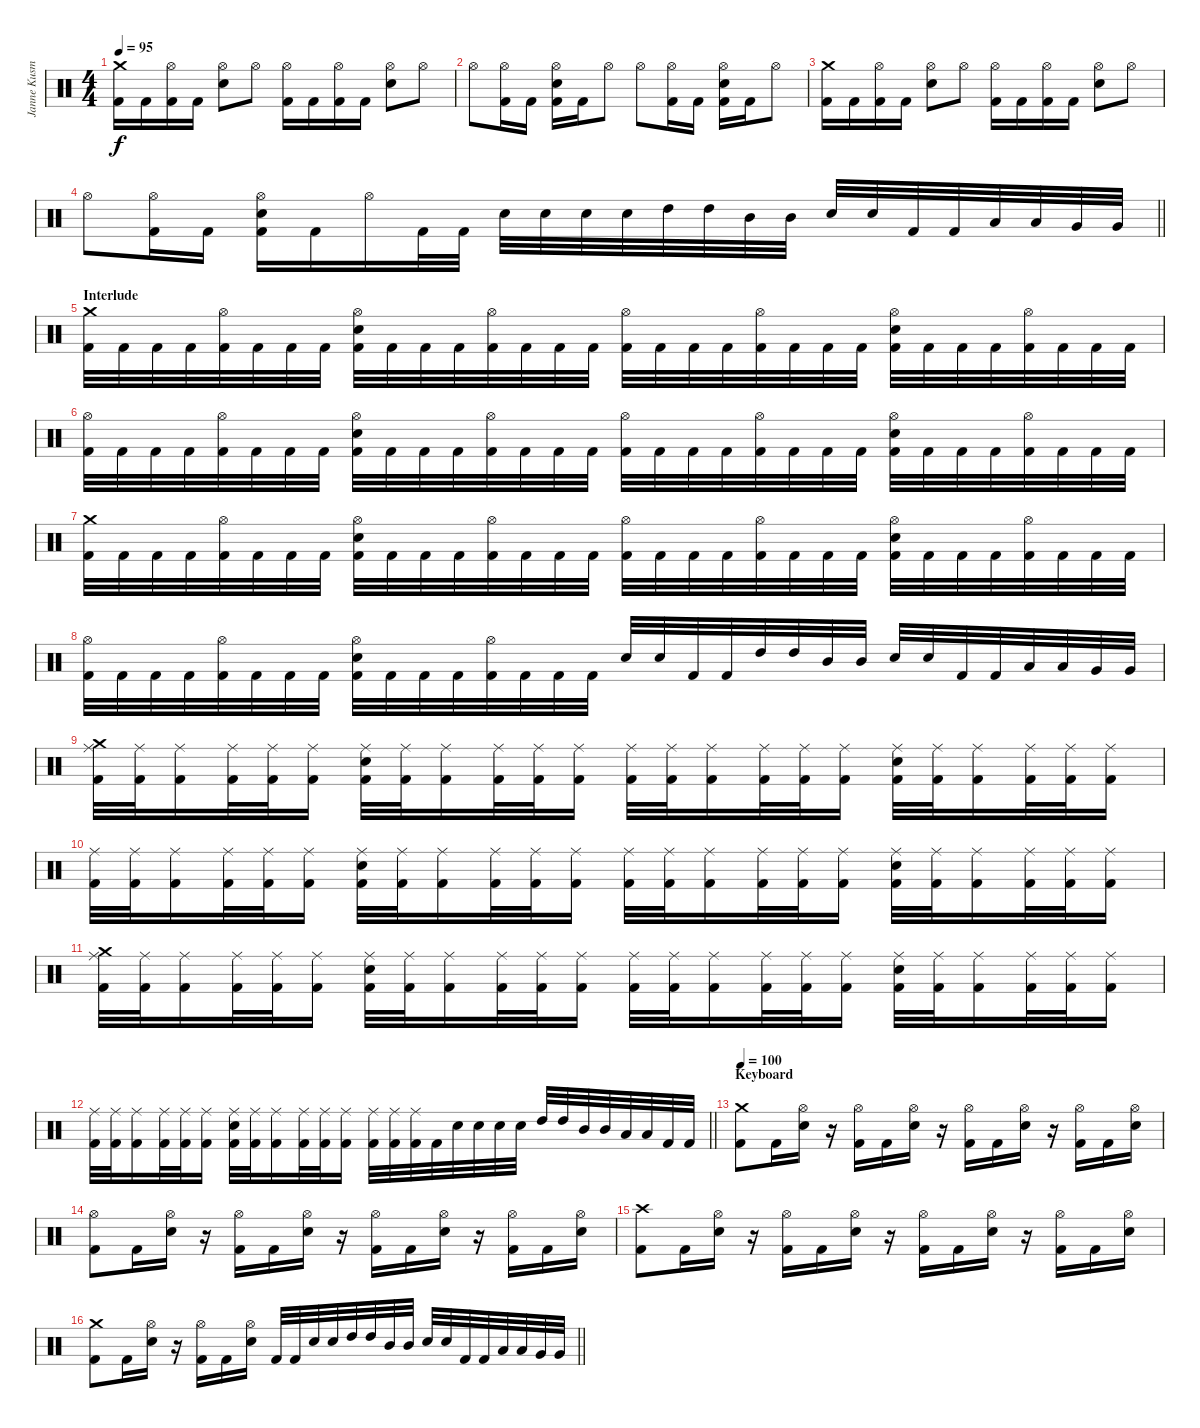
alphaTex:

\track ("Janne Kusmin " "Janne Kusm") {instrument percussion}
\staff {score}
\articulation defaults
\ts (4 4)
\tempo 95
\clef neutral
\ks c
("Crash medium (hit)" "Kick (hit) 2").16{dy f} "Kick (hit) 2".16 ("Hi-Hat (open)" "Kick (hit) 2").16 "Kick (hit) 2".16 ("Hi-Hat (open)" "Electric Snare (hit)").8 "Hi-Hat (open)".8 ("Hi-Hat (open)" "Kick (hit) 2").16 "Kick (hit) 2".16 ("Hi-Hat (open)" "Kick (hit) 2").16 "Kick (hit) 2".16 ("Hi-Hat (open)" "Electric Snare (hit)").8 "Hi-Hat (open)".8 |
"Hi-Hat (open)".8 ("Hi-Hat (open)" "Kick (hit) 2").16 "Kick (hit) 2".16 ("Hi-Hat (open)" "Electric Snare (hit)" "Kick (hit) 2").16 "Kick (hit) 2".16 "Hi-Hat (open)".8 "Hi-Hat (open)".8 ("Hi-Hat (open)" "Kick (hit) 2").16 "Kick (hit) 2".16 ("Hi-Hat (open)" "Electric Snare (hit)" "Kick (hit) 2").16 "Kick (hit) 2".16 "Hi-Hat (open)".8 |
("Crash medium (hit)" "Kick (hit) 2").16 "Kick (hit) 2".16 ("Hi-Hat (open)" "Kick (hit) 2").16 "Kick (hit) 2".16 ("Hi-Hat (open)" "Electric Snare (hit)").8 "Hi-Hat (open)".8 ("Hi-Hat (open)" "Kick (hit) 2").16 "Kick (hit) 2".16 ("Hi-Hat (open)" "Kick (hit) 2").16 "Kick (hit) 2".16 ("Hi-Hat (open)" "Electric Snare (hit)").8 "Hi-Hat (open)".8 |
\barLineRight lightlight "Hi-Hat (open)".8
("Hi-Hat (open)" "Kick (hit) 2").16 "Kick (hit) 2".16 ("Hi-Hat (open)" "Electric Snare (hit)" "Kick (hit) 2").16 "Kick (hit) 2".16 "Hi-Hat (open)".16 "Kick (hit) 2".32 "Kick (hit) 2".32 "Electric Snare (hit)".32 "Electric Snare (hit)".32 "Electric Snare (hit)".32 "Electric Snare (hit)".32 "High Tom (hit)".32 "High Tom (hit)".32 "Mid Tom (hit)".32 "Mid Tom (hit)".32 "Electric Snare (hit)".32 "Electric Snare (hit)".32 "Kick (hit) 2".32 "Kick (hit) 2".32 "Low Tom (hit)".32 "Low Tom (hit)".32 "Very Low Tom (hit)".32 "Very Low Tom (hit)".32 |
\section ("" "Interlude")
("Crash medium (hit)" "Kick (hit) 2").32 "Kick (hit) 2".32 "Kick (hit) 2".32 "Kick (hit) 2".32 ("Hi-Hat (open)" "Kick (hit) 2").32 "Kick (hit) 2".32 "Kick (hit) 2".32 "Kick (hit) 2".32 ("Hi-Hat (open)" "Electric Snare (hit)" "Kick (hit) 2").32 "Kick (hit) 2".32 "Kick (hit) 2".32 "Kick (hit) 2".32 ("Hi-Hat (open)" "Kick (hit) 2").32 "Kick (hit) 2".32 "Kick (hit) 2".32 "Kick (hit) 2".32 ("Hi-Hat (open)" "Kick (hit) 2").32 "Kick (hit) 2".32 "Kick (hit) 2".32 "Kick (hit) 2".32 ("Hi-Hat (open)" "Kick (hit) 2").32 "Kick (hit) 2".32 "Kick (hit) 2".32 "Kick (hit) 2".32 ("Hi-Hat (open)" "Electric Snare (hit)" "Kick (hit) 2").32 "Kick (hit) 2".32 "Kick (hit) 2".32 "Kick (hit) 2".32 ("Hi-Hat (open)" "Kick (hit) 2").32 "Kick (hit) 2".32 "Kick (hit) 2".32 "Kick (hit) 2".32 |
("Hi-Hat (open)" "Kick (hit) 2").32 "Kick (hit) 2".32 "Kick (hit) 2".32 "Kick (hit) 2".32 ("Hi-Hat (open)" "Kick (hit) 2").32 "Kick (hit) 2".32 "Kick (hit) 2".32 "Kick (hit) 2".32 ("Hi-Hat (open)" "Electric Snare (hit)" "Kick (hit) 2").32 "Kick (hit) 2".32 "Kick (hit) 2".32 "Kick (hit) 2".32 ("Hi-Hat (open)" "Kick (hit) 2").32 "Kick (hit) 2".32 "Kick (hit) 2".32 "Kick (hit) 2".32 ("Hi-Hat (open)" "Kick (hit) 2").32 "Kick (hit) 2".32 "Kick (hit) 2".32 "Kick (hit) 2".32 ("Hi-Hat (open)" "Kick (hit) 2").32 "Kick (hit) 2".32 "Kick (hit) 2".32 "Kick (hit) 2".32 ("Hi-Hat (open)" "Electric Snare (hit)" "Kick (hit) 2").32 "Kick (hit) 2".32 "Kick (hit) 2".32 "Kick (hit) 2".32 ("Hi-Hat (open)" "Kick (hit) 2").32 "Kick (hit) 2".32 "Kick (hit) 2".32 "Kick (hit) 2".32 |
("Crash medium (hit)" "Kick (hit) 2").32 "Kick (hit) 2".32 "Kick (hit) 2".32 "Kick (hit) 2".32 ("Hi-Hat (open)" "Kick (hit) 2").32 "Kick (hit) 2".32 "Kick (hit) 2".32 "Kick (hit) 2".32 ("Hi-Hat (open)" "Electric Snare (hit)" "Kick (hit) 2").32 "Kick (hit) 2".32 "Kick (hit) 2".32 "Kick (hit) 2".32 ("Hi-Hat (open)" "Kick (hit) 2").32 "Kick (hit) 2".32 "Kick (hit) 2".32 "Kick (hit) 2".32 ("Hi-Hat (open)" "Kick (hit) 2").32 "Kick (hit) 2".32 "Kick (hit) 2".32 "Kick (hit) 2".32 ("Hi-Hat (open)" "Kick (hit) 2").32 "Kick (hit) 2".32 "Kick (hit) 2".32 "Kick (hit) 2".32 ("Hi-Hat (open)" "Electric Snare (hit)" "Kick (hit) 2").32 "Kick (hit) 2".32 "Kick (hit) 2".32 "Kick (hit) 2".32 ("Hi-Hat (open)" "Kick (hit) 2").32 "Kick (hit) 2".32 "Kick (hit) 2".32 "Kick (hit) 2".32 |
("Hi-Hat (open)" "Kick (hit) 2").32 "Kick (hit) 2".32 "Kick (hit) 2".32 "Kick (hit) 2".32 ("Hi-Hat (open)" "Kick (hit) 2").32 "Kick (hit) 2".32 "Kick (hit) 2".32 "Kick (hit) 2".32 ("Hi-Hat (open)" "Electric Snare (hit)" "Kick (hit) 2").32 "Kick (hit) 2".32 "Kick (hit) 2".32 "Kick (hit) 2".32 ("Hi-Hat (open)" "Kick (hit) 2").32 "Kick (hit) 2".32 "Kick (hit) 2".32 "Kick (hit) 2".32 "Electric Snare (hit)".32 "Electric Snare (hit)".32 "Kick (hit) 2".32 "Kick (hit) 2".32 "High Tom (hit)".32 "High Tom (hit)".32 "Mid Tom (hit)".32 "Mid Tom (hit)".32 "Electric Snare (hit)".32 "Electric Snare (hit)".32 "Kick (hit) 2".32 "Kick (hit) 2".32 "Low Tom (hit)".32 "Low Tom (hit)".32 "Very Low Tom (hit)".32 "Very Low Tom (hit)".32 |
("Crash medium (hit)" "Ride (middle)" "Kick (hit) 2").32 ("Ride (middle)" "Kick (hit) 2").32 ("Ride (middle)" "Kick (hit) 2").16 ("Ride (middle)" "Kick (hit) 2").32 ("Ride (middle)" "Kick (hit) 2").32 ("Ride (middle)" "Kick (hit) 2").16 ("Ride (middle)" "Electric Snare (hit)" "Kick (hit) 2").32 ("Ride (middle)" "Kick (hit) 2").32 ("Ride (middle)" "Kick (hit) 2").16 ("Ride (middle)" "Kick (hit) 2").32 ("Ride (middle)" "Kick (hit) 2").32 ("Ride (middle)" "Kick (hit) 2").16 ("Ride (middle)" "Kick (hit) 2").32 ("Ride (middle)" "Kick (hit) 2").32 ("Ride (middle)" "Kick (hit) 2").16 ("Ride (middle)" "Kick (hit) 2").32 ("Ride (middle)" "Kick (hit) 2").32 ("Ride (middle)" "Kick (hit) 2").16 ("Ride (middle)" "Electric Snare (hit)" "Kick (hit) 2").32 ("Ride (middle)" "Kick (hit) 2").32 ("Ride (middle)" "Kick (hit) 2").16 ("Ride (middle)" "Kick (hit) 2").32 ("Ride (middle)" "Kick (hit) 2").32 ("Ride (middle)" "Kick (hit) 2").16 |
("Ride (middle)" "Kick (hit) 2").32 ("Ride (middle)" "Kick (hit) 2").32 ("Ride (middle)" "Kick (hit) 2").16 ("Ride (middle)" "Kick (hit) 2").32 ("Ride (middle)" "Kick (hit) 2").32 ("Ride (middle)" "Kick (hit) 2").16 ("Ride (middle)" "Electric Snare (hit)" "Kick (hit) 2").32 ("Ride (middle)" "Kick (hit) 2").32 ("Ride (middle)" "Kick (hit) 2").16 ("Ride (middle)" "Kick (hit) 2").32 ("Ride (middle)" "Kick (hit) 2").32 ("Ride (middle)" "Kick (hit) 2").16 ("Ride (middle)" "Kick (hit) 2").32 ("Ride (middle)" "Kick (hit) 2").32 ("Ride (middle)" "Kick (hit) 2").16 ("Ride (middle)" "Kick (hit) 2").32 ("Ride (middle)" "Kick (hit) 2").32 ("Ride (middle)" "Kick (hit) 2").16 ("Ride (middle)" "Electric Snare (hit)" "Kick (hit) 2").32 ("Ride (middle)" "Kick (hit) 2").32 ("Ride (middle)" "Kick (hit) 2").16 ("Ride (middle)" "Kick (hit) 2").32 ("Ride (middle)" "Kick (hit) 2").32 ("Ride (middle)" "Kick (hit) 2").16 |
("Crash medium (hit)" "Ride (middle)" "Kick (hit) 2").32 ("Ride (middle)" "Kick (hit) 2").32 ("Ride (middle)" "Kick (hit) 2").16 ("Ride (middle)" "Kick (hit) 2").32 ("Ride (middle)" "Kick (hit) 2").32 ("Ride (middle)" "Kick (hit) 2").16 ("Ride (middle)" "Electric Snare (hit)" "Kick (hit) 2").32 ("Ride (middle)" "Kick (hit) 2").32 ("Ride (middle)" "Kick (hit) 2").16 ("Ride (middle)" "Kick (hit) 2").32 ("Ride (middle)" "Kick (hit) 2").32 ("Ride (middle)" "Kick (hit) 2").16 ("Ride (middle)" "Kick (hit) 2").32 ("Ride (middle)" "Kick (hit) 2").32 ("Ride (middle)" "Kick (hit) 2").16 ("Ride (middle)" "Kick (hit) 2").32 ("Ride (middle)" "Kick (hit) 2").32 ("Ride (middle)" "Kick (hit) 2").16 ("Ride (middle)" "Electric Snare (hit)" "Kick (hit) 2").32 ("Ride (middle)" "Kick (hit) 2").32 ("Ride (middle)" "Kick (hit) 2").16 ("Ride (middle)" "Kick (hit) 2").32 ("Ride (middle)" "Kick (hit) 2").32 ("Ride (middle)" "Kick (hit) 2").16 |
\barLineRight lightlight
("Ride (middle)" "Kick (hit) 2").32 ("Ride (middle)" "Kick (hit) 2").32 ("Ride (middle)" "Kick (hit) 2").16 ("Ride (middle)" "Kick (hit) 2").32 ("Ride (middle)" "Kick (hit) 2").32 ("Ride (middle)" "Kick (hit) 2").16 ("Ride (middle)" "Electric Snare (hit)" "Kick (hit) 2").32 ("Ride (middle)" "Kick (hit) 2").32 ("Ride (middle)" "Kick (hit) 2").16 ("Ride (middle)" "Kick (hit) 2").32 ("Ride (middle)" "Kick (hit) 2").32 ("Ride (middle)" "Kick (hit) 2").16 ("Ride (middle)" "Kick (hit) 2").32 ("Ride (middle)" "Kick (hit) 2").32 ("Ride (middle)" "Kick (hit) 2").32 "Kick (hit) 2".32 "Electric Snare (hit)".32 "Electric Snare (hit)".32 "Electric Snare (hit)".32 "Electric Snare (hit)".32 "High Tom (hit)".32 "High Tom (hit)".32 "Mid Tom (hit)".32 "Mid Tom (hit)".32 "Low Floor Tom (hit)".32 "Low Floor Tom (hit)".32 "Kick (hit) 2".32 "Kick (hit) 2".32 |
\section ("" "Keyboard")
\tempo 100
("Crash medium (hit)" "Kick (hit) 2").8 "Kick (hit) 2".16 ("Hi-Hat (open)" "Electric Snare (hit)").16 r.16 ("Hi-Hat (open)" "Kick (hit) 2").16 "Kick (hit) 2".16 ("Hi-Hat (open)" "Electric Snare (hit)").16 r.16 ("Hi-Hat (open)" "Kick (hit) 2").16 "Kick (hit) 2".16 ("Hi-Hat (open)" "Electric Snare (hit)").16 r.16 ("Hi-Hat (open)" "Kick (hit) 2").16 "Kick (hit) 2".16 ("Hi-Hat (open)" "Electric Snare (hit)").16 |
("Hi-Hat (open)" "Kick (hit) 2").8 "Kick (hit) 2".16 ("Hi-Hat (open)" "Electric Snare (hit)").16 r.16 ("Hi-Hat (open)" "Kick (hit) 2").16 "Kick (hit) 2".16 ("Hi-Hat (open)" "Electric Snare (hit)").16 r.16 ("Hi-Hat (open)" "Kick (hit) 2").16 "Kick (hit) 2".16 ("Hi-Hat (open)" "Electric Snare (hit)").16 r.16 ("Hi-Hat (open)" "Kick (hit) 2").16 "Kick (hit) 2".16 ("Hi-Hat (open)" "Electric Snare (hit)").16 |
("Crash high (hit)" "Kick (hit) 2").8 "Kick (hit) 2".16 ("Hi-Hat (open)" "Electric Snare (hit)").16 r.16 ("Hi-Hat (open)" "Kick (hit) 2").16 "Kick (hit) 2".16 ("Hi-Hat (open)" "Electric Snare (hit)").16 r.16 ("Hi-Hat (open)" "Kick (hit) 2").16 "Kick (hit) 2".16 ("Hi-Hat (open)" "Electric Snare (hit)").16 r.16 ("Hi-Hat (open)" "Kick (hit) 2").16 "Kick (hit) 2".16 ("Hi-Hat (open)" "Electric Snare (hit)").16 |
\barLineRight lightlight
("Crash medium (hit)" "Kick (hit) 2").8 "Kick (hit) 2".16 ("Hi-Hat (open)" "Electric Snare (hit)").16 r.16 ("Hi-Hat (open)" "Kick (hit) 2").16 "Kick (hit) 2".16 ("Hi-Hat (open)" "Electric Snare (hit)").16 "Kick (hit) 2".32 "Kick (hit) 2".32 "Electric Snare (hit)".32 "Electric Snare (hit)".32 "High Tom (hit)".32 "High Tom (hit)".32 "Mid Tom (hit)".32 "Mid Tom (hit)".32 "Electric Snare (hit)".32 "Electric Snare (hit)".32 "Kick (hit) 2".32 "Kick (hit) 2".32 "Low Tom (hit)".32 "Low Tom (hit)".32 "Very Low Tom (hit)".32 "Very Low Tom (hit)".32
